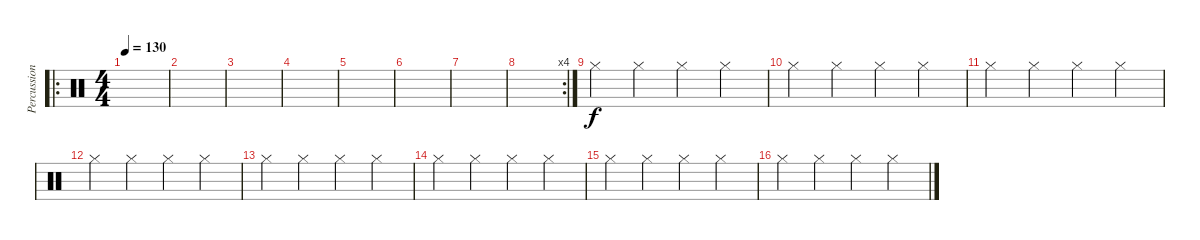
\track ("Percussion" "Percussion") {instrument percussion}
\staff {score}
\articulation defaults
\ro
\ts (4 4)
\tempo 130
\clef neutral
\ks c
|
|
|
|
|
|
|
\rc 4
|
"Hi-Hat (closed)".4 "Hi-Hat (closed)".4 "Hi-Hat (closed)".4 "Hi-Hat (closed)".4 |
"Hi-Hat (closed)".4 "Hi-Hat (closed)".4 "Hi-Hat (closed)".4 "Hi-Hat (closed)".4 |
"Hi-Hat (closed)".4 "Hi-Hat (closed)".4 "Hi-Hat (closed)".4 "Hi-Hat (closed)".4 |
"Hi-Hat (closed)".4 "Hi-Hat (closed)".4 "Hi-Hat (closed)".4 "Hi-Hat (closed)".4 |
"Hi-Hat (closed)".4 "Hi-Hat (closed)".4 "Hi-Hat (closed)".4 "Hi-Hat (closed)".4 |
"Hi-Hat (closed)".4 "Hi-Hat (closed)".4 "Hi-Hat (closed)".4 "Hi-Hat (closed)".4 |
"Hi-Hat (closed)".4 "Hi-Hat (closed)".4 "Hi-Hat (closed)".4 "Hi-Hat (closed)".4 |
"Hi-Hat (closed)".4 "Hi-Hat (closed)".4 "Hi-Hat (closed)".4 "Hi-Hat (closed)".4
